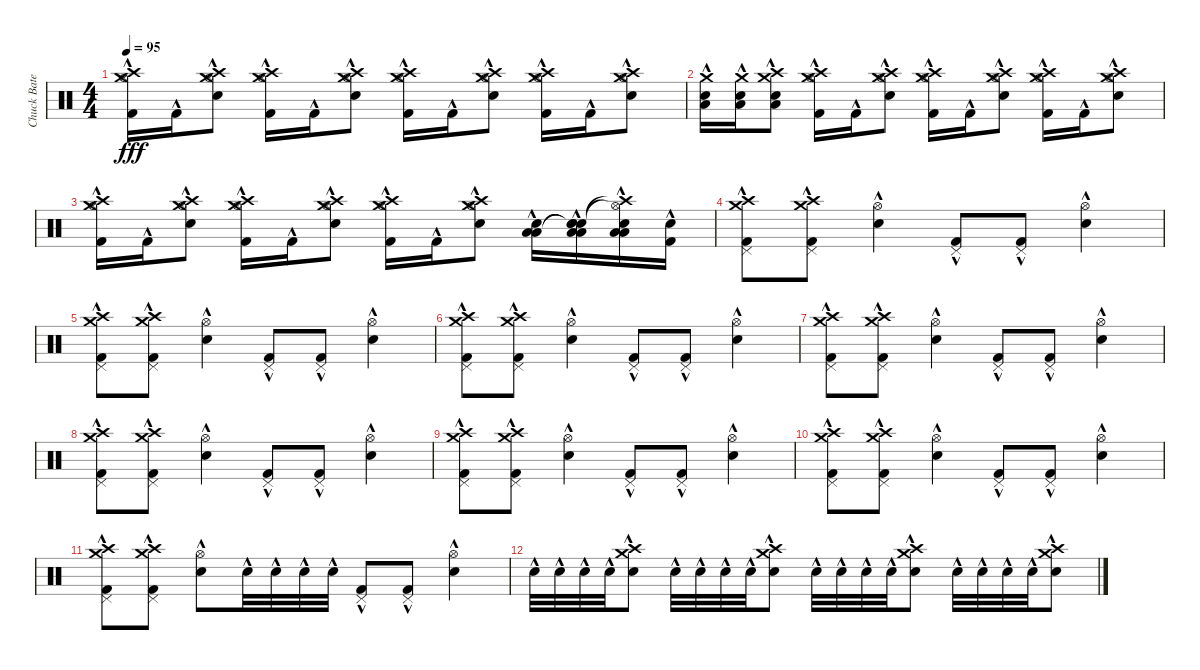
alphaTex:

\track ("Chuck Bateria" "Chuck Bate") {instrument percussion}
\staff {score}
\articulation defaults
\ts (4 4)
\tempo 95
\clef neutral
\ks c
("Crash high (hit)" "Hi-Hat (open)" "Crash medium (hit)" "Kick (hit) 2"{hac}).16{dy fff} "Kick (hit) 2"{hac}.16 ("Crash high (hit)" "Hi-Hat (open)" "Crash medium (hit)" "Electric Snare (hit)"{hac}).8 ("Crash high (hit)" "Hi-Hat (open)" "Crash medium (hit)" "Kick (hit) 2"{hac}).16 "Kick (hit) 2"{hac}.16 ("Crash high (hit)" "Hi-Hat (open)" "Crash medium (hit)" "Electric Snare (hit)"{hac}).8 ("Crash high (hit)" "Hi-Hat (open)" "Crash medium (hit)" "Kick (hit) 2"{hac}).16 "Kick (hit) 2"{hac}.16 ("Crash high (hit)" "Hi-Hat (open)" "Crash medium (hit)" "Electric Snare (hit)"{hac}).8 ("Crash high (hit)" "Hi-Hat (open)" "Crash medium (hit)" "Kick (hit) 2"{hac}).16 "Kick (hit) 2"{hac}.16 ("Crash high (hit)"{hac} "Hi-Hat (open)"{hac} "Crash medium (hit)"{hac} "Electric Snare (hit)"{hac}).8 |
("Crash medium (hit)" "Electric Snare (hit)"{hac} "Low Floor Tom (hit)"{hac}).16 ("Crash medium (hit)" "Electric Snare (hit)"{hac} "Low Floor Tom (hit)"{hac}).16 ("Crash high (hit)" "Crash medium (hit)" "Electric Snare (hit)"{hac} "Low Floor Tom (hit)"{hac}).8 ("Crash high (hit)" "Hi-Hat (open)" "Crash medium (hit)" "Kick (hit) 2"{hac}).16 "Kick (hit) 2"{hac}.16 ("Crash high (hit)" "Hi-Hat (open)" "Crash medium (hit)" "Electric Snare (hit)"{hac}).8 ("Crash high (hit)" "Hi-Hat (open)" "Crash medium (hit)" "Kick (hit) 2"{hac}).16 "Kick (hit) 2"{hac}.16 ("Crash high (hit)" "Hi-Hat (open)" "Crash medium (hit)" "Electric Snare (hit)"{hac}).8 ("Crash high (hit)" "Hi-Hat (open)" "Crash medium (hit)" "Kick (hit) 2"{hac}).16 "Kick (hit) 2"{hac}.16 ("Crash high (hit)" "Hi-Hat (open)" "Crash medium (hit)" "Electric Snare (hit)"{hac}).8 |
("Crash high (hit)" "Hi-Hat (open)" "Crash medium (hit)" "Kick (hit) 2"{hac}).16 "Kick (hit) 2"{hac}.16 ("Crash high (hit)" "Hi-Hat (open)" "Crash medium (hit)" "Electric Snare (hit)"{hac}).8 ("Crash high (hit)" "Hi-Hat (open)" "Crash medium (hit)" "Kick (hit) 2"{hac}).16 "Kick (hit) 2"{hac}.16 ("Crash high (hit)" "Hi-Hat (open)" "Crash medium (hit)" "Electric Snare (hit)"{hac}).8 ("Crash high (hit)" "Hi-Hat (open)" "Crash medium (hit)" "Kick (hit) 2"{hac}).16 "Kick (hit) 2"{hac}.16 ("Crash high (hit)" "Hi-Hat (open)" "Crash medium (hit)" "Electric Snare (hit)"{hac}).8 ("Low Floor Tom (hit)"{hac} "Low Floor Tom (hit)"{hac} "Electric Snare (hit)").16 ("Snare (hit)"{t} "Snare (hit)"{t} "Low Floor Tom (hit)"{hac} "Low Floor Tom (hit)"{hac} "Electric Snare (hit)"{hac}).16 ("Crash high (hit)"{t} "Hi-Hat (open)"{t} "Low Floor Tom (hit)"{hac} "Low Floor Tom (hit)"{hac} "Electric Snare (hit)"{hac}).16 ("Electric Snare (hit)"{hac} "Kick (hit) 2"{hac}).16 |
("Crash high (hit)"{hac} "Crash medium (hit)"{hac} "Pedal Hi-Hat (hit)" "Kick (hit) 2"{hac}).8 ("Crash high (hit)"{hac} "Crash medium (hit)"{hac} "Pedal Hi-Hat (hit)" "Kick (hit) 2"{hac}).8 ("Hi-Hat (open)"{hac} "Electric Snare (hit)"{hac}).4 ("Pedal Hi-Hat (hit)" "Kick (hit) 2"{hac}).8 ("Pedal Hi-Hat (hit)" "Kick (hit) 2"{hac}).8 ("Hi-Hat (open)"{hac} "Electric Snare (hit)"{hac}).4 |
("Crash high (hit)"{hac} "Crash medium (hit)"{hac} "Pedal Hi-Hat (hit)" "Kick (hit) 2"{hac}).8 ("Crash high (hit)"{hac} "Crash medium (hit)"{hac} "Pedal Hi-Hat (hit)" "Kick (hit) 2"{hac}).8 ("Hi-Hat (open)"{hac} "Electric Snare (hit)"{hac}).4 ("Pedal Hi-Hat (hit)" "Kick (hit) 2"{hac}).8 ("Pedal Hi-Hat (hit)" "Kick (hit) 2"{hac}).8 ("Hi-Hat (open)"{hac} "Electric Snare (hit)"{hac}).4 |
("Crash high (hit)"{hac} "Crash medium (hit)"{hac} "Pedal Hi-Hat (hit)" "Kick (hit) 2"{hac}).8 ("Crash high (hit)"{hac} "Crash medium (hit)"{hac} "Pedal Hi-Hat (hit)" "Kick (hit) 2"{hac}).8 ("Hi-Hat (open)"{hac} "Electric Snare (hit)"{hac}).4 ("Pedal Hi-Hat (hit)" "Kick (hit) 2"{hac}).8 ("Pedal Hi-Hat (hit)" "Kick (hit) 2"{hac}).8 ("Hi-Hat (open)"{hac} "Electric Snare (hit)"{hac}).4 |
("Crash high (hit)"{hac} "Crash medium (hit)"{hac} "Pedal Hi-Hat (hit)" "Kick (hit) 2"{hac}).8 ("Crash high (hit)"{hac} "Crash medium (hit)"{hac} "Pedal Hi-Hat (hit)" "Kick (hit) 2"{hac}).8 ("Hi-Hat (open)"{hac} "Electric Snare (hit)"{hac}).4 ("Pedal Hi-Hat (hit)" "Kick (hit) 2"{hac}).8 ("Pedal Hi-Hat (hit)" "Kick (hit) 2"{hac}).8 ("Hi-Hat (open)"{hac} "Electric Snare (hit)"{hac}).4 |
("Crash high (hit)"{hac} "Crash medium (hit)"{hac} "Pedal Hi-Hat (hit)" "Kick (hit) 2"{hac}).8 ("Crash high (hit)"{hac} "Crash medium (hit)"{hac} "Pedal Hi-Hat (hit)" "Kick (hit) 2"{hac}).8 ("Hi-Hat (open)"{hac} "Electric Snare (hit)"{hac}).4 ("Pedal Hi-Hat (hit)" "Kick (hit) 2"{hac}).8 ("Pedal Hi-Hat (hit)" "Kick (hit) 2"{hac}).8 ("Hi-Hat (open)"{hac} "Electric Snare (hit)"{hac}).4 |
("Crash high (hit)"{hac} "Crash medium (hit)"{hac} "Pedal Hi-Hat (hit)" "Kick (hit) 2"{hac}).8 ("Crash high (hit)"{hac} "Crash medium (hit)"{hac} "Pedal Hi-Hat (hit)" "Kick (hit) 2"{hac}).8 ("Hi-Hat (open)"{hac} "Electric Snare (hit)"{hac}).4 ("Pedal Hi-Hat (hit)" "Kick (hit) 2"{hac}).8 ("Pedal Hi-Hat (hit)" "Kick (hit) 2"{hac}).8 ("Hi-Hat (open)"{hac} "Electric Snare (hit)"{hac}).4 |
("Crash high (hit)"{hac} "Crash medium (hit)"{hac} "Pedal Hi-Hat (hit)" "Kick (hit) 2"{hac}).8 ("Crash high (hit)"{hac} "Crash medium (hit)"{hac} "Pedal Hi-Hat (hit)" "Kick (hit) 2"{hac}).8 ("Hi-Hat (open)"{hac} "Electric Snare (hit)"{hac}).4 ("Pedal Hi-Hat (hit)" "Kick (hit) 2"{hac}).8 ("Pedal Hi-Hat (hit)" "Kick (hit) 2"{hac}).8 ("Hi-Hat (open)"{hac} "Electric Snare (hit)"{hac}).4 |
("Crash high (hit)"{hac} "Crash medium (hit)"{hac} "Pedal Hi-Hat (hit)" "Kick (hit) 2"{hac}).8 ("Crash high (hit)"{hac} "Crash medium (hit)"{hac} "Pedal Hi-Hat (hit)" "Kick (hit) 2"{hac}).8 ("Hi-Hat (open)"{hac} "Electric Snare (hit)"{hac}).8 "Electric Snare (hit)"{hac}.32 "Electric Snare (hit)"{hac}.32 "Electric Snare (hit)"{hac}.32 "Electric Snare (hit)"{hac}.32 ("Pedal Hi-Hat (hit)" "Kick (hit) 2"{hac}).8 ("Pedal Hi-Hat (hit)" "Kick (hit) 2"{hac}).8 ("Hi-Hat (open)"{hac} "Electric Snare (hit)"{hac}).4 |
"Electric Snare (hit)"{hac}.32 "Electric Snare (hit)"{hac}.32 "Electric Snare (hit)"{hac}.32 "Electric Snare (hit)"{hac}.32 ("Crash high (hit)" "Crash medium (hit)" "Electric Snare (hit)"{hac}).8 "Electric Snare (hit)"{hac}.32 "Electric Snare (hit)"{hac}.32 "Electric Snare (hit)"{hac}.32 "Electric Snare (hit)"{hac}.32 ("Crash high (hit)" "Crash medium (hit)" "Electric Snare (hit)"{hac}).8 "Electric Snare (hit)"{hac}.32 "Electric Snare (hit)"{hac}.32 "Electric Snare (hit)"{hac}.32 "Electric Snare (hit)"{hac}.32 ("Crash high (hit)" "Crash medium (hit)" "Electric Snare (hit)"{hac}).8 "Electric Snare (hit)"{hac}.32 "Electric Snare (hit)"{hac}.32 "Electric Snare (hit)"{hac}.32 "Electric Snare (hit)"{hac}.32 ("Crash high (hit)" "Crash medium (hit)" "Electric Snare (hit)"{hac}).8
